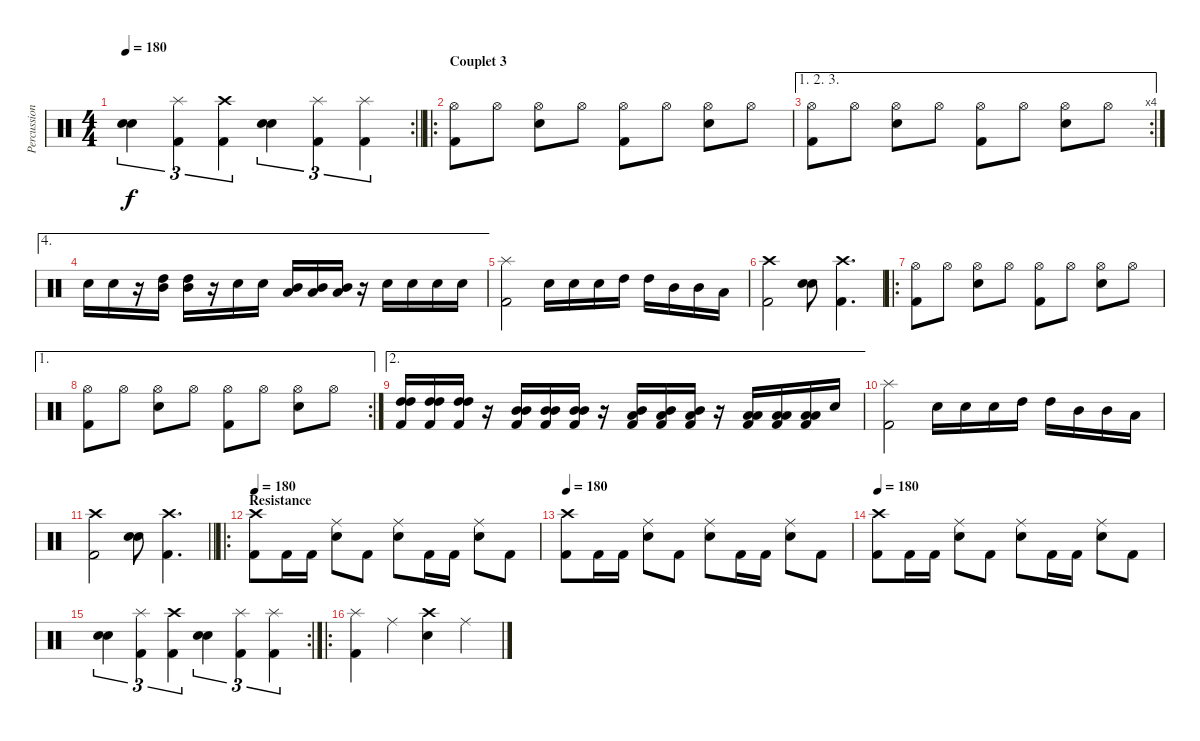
\track ("Percussions" "Percussion") {instrument percussion}
\staff {score}
\articulation defaults
\rc 2
\ts (4 4)
\tempo 180
\clef neutral
\barLineRight lightlight
\ks c
("Snare (hit) 2" "Snare (hit) 2").4{tu (3 2) bd 240 dy f} ("Splash (hit)" "Kick (hit) 2").4{tu (3 2)} ("Crash high (hit)" "Kick (hit) 2").4{tu (3 2)} ("Snare (hit) 2" "Snare (hit) 2").4{tu (3 2) bd 240} ("Splash (hit)" "Kick (hit) 2").4{tu (3 2)} ("Splash (hit)" "Kick (hit) 2").4{tu (3 2)} |
\ro
\section ("" "Couplet 3")
("Hi-Hat (open)" "Kick (hit) 2").8{volume 13} "Hi-Hat (open)".8{volume 10} ("Hi-Hat (open)" "Electric Snare (hit)").8{volume 13} "Hi-Hat (open)".8{volume 10} ("Hi-Hat (open)" "Kick (hit) 2").8{volume 13} "Hi-Hat (open)".8{volume 12} ("Hi-Hat (open)" "Electric Snare (hit)").8{volume 13} "Hi-Hat (open)".8{volume 10} |
\ae (1 2 3)
\rc 4
("Hi-Hat (open)" "Kick (hit) 2").8{volume 13} "Hi-Hat (open)".8{volume 10} ("Hi-Hat (open)" "Electric Snare (hit)").8{volume 13} "Hi-Hat (open)".8{volume 10} ("Hi-Hat (open)" "Kick (hit) 2").8{volume 13} "Hi-Hat (open)".8{volume 12} ("Hi-Hat (open)" "Electric Snare (hit)").8{volume 13} "Hi-Hat (open)".8{volume 10} |
\ae 4 "Electric Snare (hit)".16 "Electric Snare (hit)".16
r.16 ("Mid Tom (hit)" "High Tom (hit)").16 ("Mid Tom (hit)" "High Tom (hit)").16 r.16 "Electric Snare (hit)".16 "Electric Snare (hit)".16 ("Mid Tom (hit)" "Low Tom (hit)").16 ("Mid Tom (hit)" "Low Tom (hit)").16 ("Mid Tom (hit)" "Low Tom (hit)").16 r.16 "Electric Snare (hit)".16 "Electric Snare (hit)".16 "Electric Snare (hit)".16 "Electric Snare (hit)".16 |
("Splash (hit)" "Kick (hit) 2").2 "Electric Snare (hit)".16 "Electric Snare (hit)".16 "Electric Snare (hit)".16 "High Tom (hit)".16 "High Tom (hit)".16 "Mid Tom (hit)".16 "Mid Tom (hit)".16 "Low Tom (hit)".16 |
("Crash high (hit)" "Kick (hit) 2").2 ("Electric Snare (hit)" "Electric Snare (hit)").8{bd 240} ("Crash high (hit)" "Kick (hit) 2").4{d} |
\ro
("Hi-Hat (open)" "Kick (hit) 2").8{volume 13} "Hi-Hat (open)".8{volume 10} ("Hi-Hat (open)" "Electric Snare (hit)").8{volume 13} "Hi-Hat (open)".8{volume 10} ("Hi-Hat (open)" "Kick (hit) 2").8{volume 13} "Hi-Hat (open)".8{volume 12} ("Hi-Hat (open)" "Electric Snare (hit)").8{volume 13} "Hi-Hat (open)".8{volume 10} |
\ae 1
\rc 2
("Hi-Hat (open)" "Kick (hit) 2").8{volume 13} "Hi-Hat (open)".8{volume 10} ("Hi-Hat (open)" "Electric Snare (hit)").8{volume 13} "Hi-Hat (open)".8{volume 10} ("Hi-Hat (open)" "Kick (hit) 2").8{volume 13} "Hi-Hat (open)".8{volume 12} ("Hi-Hat (open)" "Electric Snare (hit)").8{volume 13} "Hi-Hat (open)".8{volume 10} |
\ae 2
("High Tom (hit)" "High Tom (hit)" "Kick (hit) 2").16 ("High Tom (hit)" "High Tom (hit)" "Kick (hit) 2").16 ("High Tom (hit)" "High Tom (hit)" "Kick (hit) 2").16 r.16 ("Mid Tom (hit)" "Mid Tom (hit)" "Kick (hit) 2").16 ("Mid Tom (hit)" "Mid Tom (hit)" "Kick (hit) 2").16 ("Mid Tom (hit)" "Mid Tom (hit)" "Kick (hit) 2").16 r.16 ("Mid Tom (hit)" "Low Tom (hit)" "Kick (hit) 2").16 ("Mid Tom (hit)" "Low Tom (hit)" "Kick (hit) 2").16 ("Mid Tom (hit)" "Low Tom (hit)" "Kick (hit) 2").16 r.16 ("Low Tom (hit)" "Low Tom (hit)" "Kick (hit) 2").16 ("Low Tom (hit)" "Low Tom (hit)" "Kick (hit) 2").16 ("Low Tom (hit)" "Low Tom (hit)" "Kick (hit) 2").16 "Snare (hit)"{x}.16 |
("Splash (hit)" "Kick (hit) 2").2 "Electric Snare (hit)".16 "Electric Snare (hit)".16 "Electric Snare (hit)".16 "High Tom (hit)".16 "High Tom (hit)".16 "Mid Tom (hit)".16 "Mid Tom (hit)".16 "Low Tom (hit)".16 |
\barLineRight lightlight
("Crash high (hit)" "Kick (hit) 2").2 ("Electric Snare (hit)" "Electric Snare (hit)").8{bd 240} ("Crash high (hit)" "Kick (hit) 2").4{d} |
\ro
\section ("" "Resistance")
\tempo 180
("Crash high (hit)" "Kick (hit) 2").8 "Kick (hit) 2".16 "Kick (hit) 2".16 ("Ride (middle)" "Electric Snare (hit)").8 "Kick (hit) 2".8 ("Ride (middle)" "Electric Snare (hit)").8 "Kick (hit) 2".16 "Kick (hit) 2".16 ("Ride (middle)" "Electric Snare (hit)").8 "Kick (hit) 2".8 |
\tempo 180
("Crash high (hit)" "Kick (hit) 2").8 "Kick (hit) 2".16 "Kick (hit) 2".16 ("Ride (middle)" "Electric Snare (hit)").8 "Kick (hit) 2".8 ("Ride (middle)" "Electric Snare (hit)").8 "Kick (hit) 2".16 "Kick (hit) 2".16 ("Ride (middle)" "Electric Snare (hit)").8 "Kick (hit) 2".8 |
\tempo 180
("Crash high (hit)" "Kick (hit) 2").8 "Kick (hit) 2".16 "Kick (hit) 2".16 ("Ride (middle)" "Electric Snare (hit)").8 "Kick (hit) 2".8 ("Ride (middle)" "Electric Snare (hit)").8 "Kick (hit) 2".16 "Kick (hit) 2".16 ("Ride (middle)" "Electric Snare (hit)").8 "Kick (hit) 2".8 |
\rc 2
("Snare (hit) 2" "Snare (hit) 2").4{tu (3 2) bd 240} ("Splash (hit)" "Kick (hit) 2").4{tu (3 2)} ("Crash high (hit)" "Kick (hit) 2").4{tu (3 2)} ("Snare (hit) 2" "Snare (hit) 2").4{tu (3 2) bd 240} ("Splash (hit)" "Kick (hit) 2").4{tu (3 2)} ("Splash (hit)" "Kick (hit) 2").4{tu (3 2)} |
\ro
("Splash (hit)" "Kick (hit) 2").4 "Ride (middle)".4 ("Crash high (hit)" "Electric Snare (hit)").4 "Ride (middle)".4
